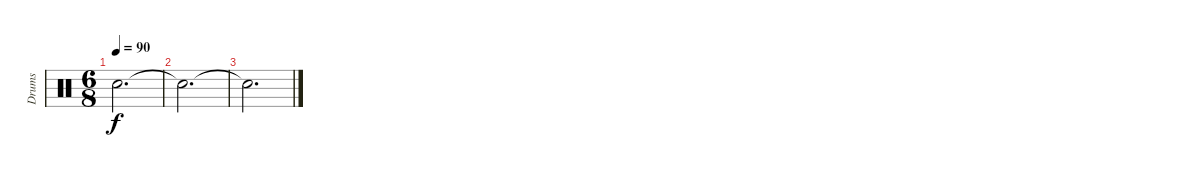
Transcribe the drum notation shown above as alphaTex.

\track ("Drums" "Drums") {instrument percussion}
\staff {score}
\articulation defaults
\ts (6 8)
\tempo 90
\clef neutral
\ks c "Snare (hit)"{t}.2{d dy f}
|
"Snare (hit)"{t}.2{d} |
"Snare (hit)"{t}.2{d}
